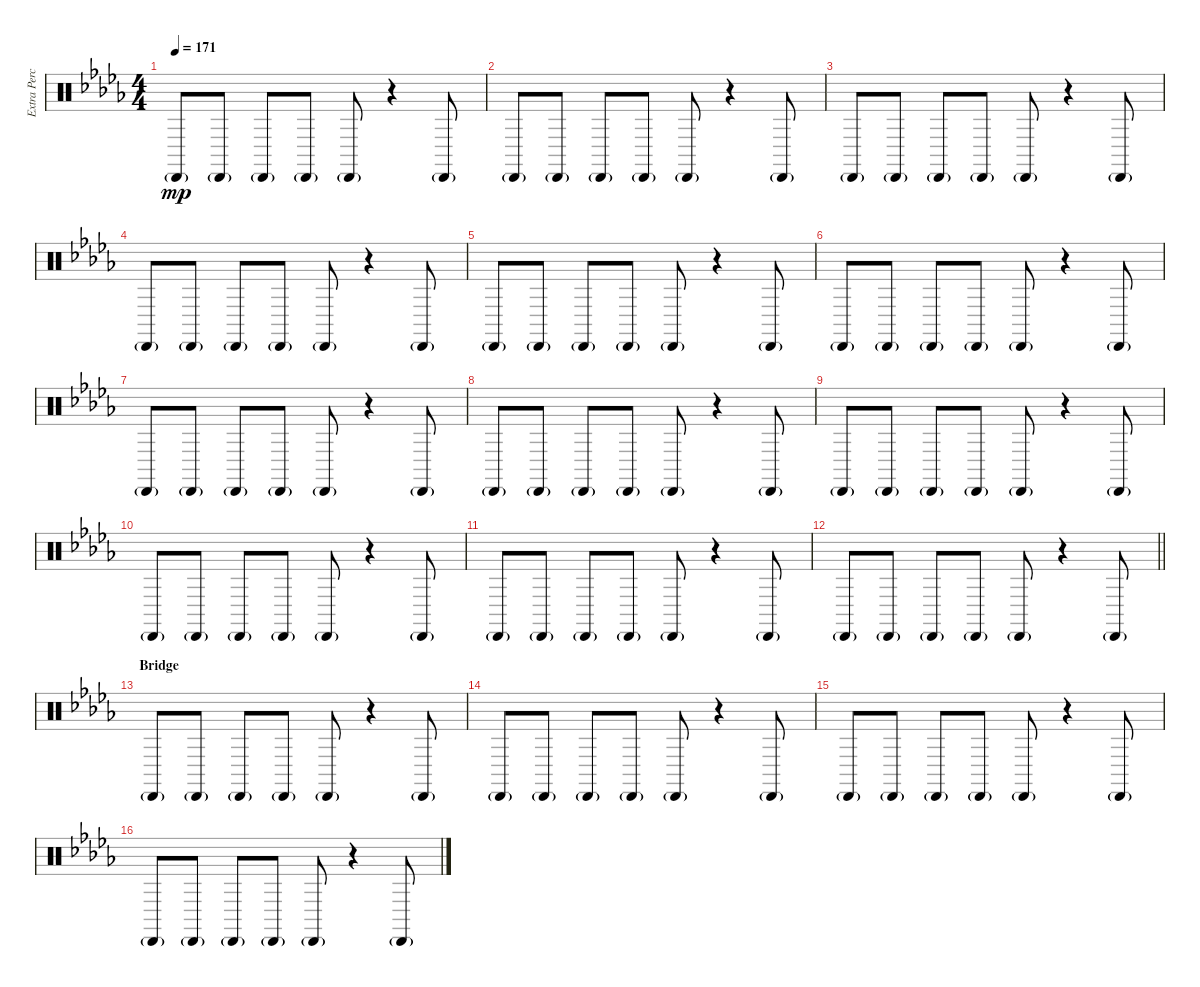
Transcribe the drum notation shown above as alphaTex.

\track ("Extra Percussion" "Extra Perc") {instrument percussion}
\staff {score}
\articulation defaults
\ts (4 4)
\tempo 171
\clef neutral
\ks db "Cabasa (hit)"{g}.8{dy mp} "Cabasa (hit)"{g}.8 "Cabasa (hit)"{g}.8 "Cabasa (hit)"{g}.8 "Cabasa (hit)"{g}.8
r.4 "Cabasa (hit)"{g}.8 |
"Cabasa (hit)"{g}.8 "Cabasa (hit)"{g}.8 "Cabasa (hit)"{g}.8 "Cabasa (hit)"{g}.8 "Cabasa (hit)"{g}.8 r.4 "Cabasa (hit)"{g}.8 |
"Cabasa (hit)"{g}.8 "Cabasa (hit)"{g}.8 "Cabasa (hit)"{g}.8 "Cabasa (hit)"{g}.8 "Cabasa (hit)"{g}.8 r.4 "Cabasa (hit)"{g}.8 |
"Cabasa (hit)"{g}.8 "Cabasa (hit)"{g}.8 "Cabasa (hit)"{g}.8 "Cabasa (hit)"{g}.8 "Cabasa (hit)"{g}.8 r.4 "Cabasa (hit)"{g}.8 |
"Cabasa (hit)"{g}.8 "Cabasa (hit)"{g}.8 "Cabasa (hit)"{g}.8 "Cabasa (hit)"{g}.8 "Cabasa (hit)"{g}.8 r.4 "Cabasa (hit)"{g}.8 |
"Cabasa (hit)"{g}.8 "Cabasa (hit)"{g}.8 "Cabasa (hit)"{g}.8 "Cabasa (hit)"{g}.8 "Cabasa (hit)"{g}.8 r.4 "Cabasa (hit)"{g}.8 |
"Cabasa (hit)"{g}.8 "Cabasa (hit)"{g}.8 "Cabasa (hit)"{g}.8 "Cabasa (hit)"{g}.8 "Cabasa (hit)"{g}.8 r.4 "Cabasa (hit)"{g}.8 |
"Cabasa (hit)"{g}.8 "Cabasa (hit)"{g}.8 "Cabasa (hit)"{g}.8 "Cabasa (hit)"{g}.8 "Cabasa (hit)"{g}.8 r.4 "Cabasa (hit)"{g}.8 |
"Cabasa (hit)"{g}.8 "Cabasa (hit)"{g}.8 "Cabasa (hit)"{g}.8 "Cabasa (hit)"{g}.8 "Cabasa (hit)"{g}.8 r.4 "Cabasa (hit)"{g}.8 |
"Cabasa (hit)"{g}.8 "Cabasa (hit)"{g}.8 "Cabasa (hit)"{g}.8 "Cabasa (hit)"{g}.8 "Cabasa (hit)"{g}.8 r.4 "Cabasa (hit)"{g}.8 |
"Cabasa (hit)"{g}.8 "Cabasa (hit)"{g}.8 "Cabasa (hit)"{g}.8 "Cabasa (hit)"{g}.8 "Cabasa (hit)"{g}.8 r.4 "Cabasa (hit)"{g}.8 |
\barLineRight lightlight "Cabasa (hit)"{g}.8 "Cabasa (hit)"{g}.8 "Cabasa (hit)"{g}.8 "Cabasa (hit)"{g}.8 "Cabasa (hit)"{g}.8
r.4 "Cabasa (hit)"{g}.8 |
\section ("" "Bridge")
"Cabasa (hit)"{g}.8 "Cabasa (hit)"{g}.8 "Cabasa (hit)"{g}.8 "Cabasa (hit)"{g}.8 "Cabasa (hit)"{g}.8 r.4 "Cabasa (hit)"{g}.8 |
"Cabasa (hit)"{g}.8 "Cabasa (hit)"{g}.8 "Cabasa (hit)"{g}.8 "Cabasa (hit)"{g}.8 "Cabasa (hit)"{g}.8 r.4 "Cabasa (hit)"{g}.8 |
"Cabasa (hit)"{g}.8 "Cabasa (hit)"{g}.8 "Cabasa (hit)"{g}.8 "Cabasa (hit)"{g}.8 "Cabasa (hit)"{g}.8 r.4 "Cabasa (hit)"{g}.8 |
"Cabasa (hit)"{g}.8 "Cabasa (hit)"{g}.8 "Cabasa (hit)"{g}.8 "Cabasa (hit)"{g}.8 "Cabasa (hit)"{g}.8 r.4 "Cabasa (hit)"{g}.8
